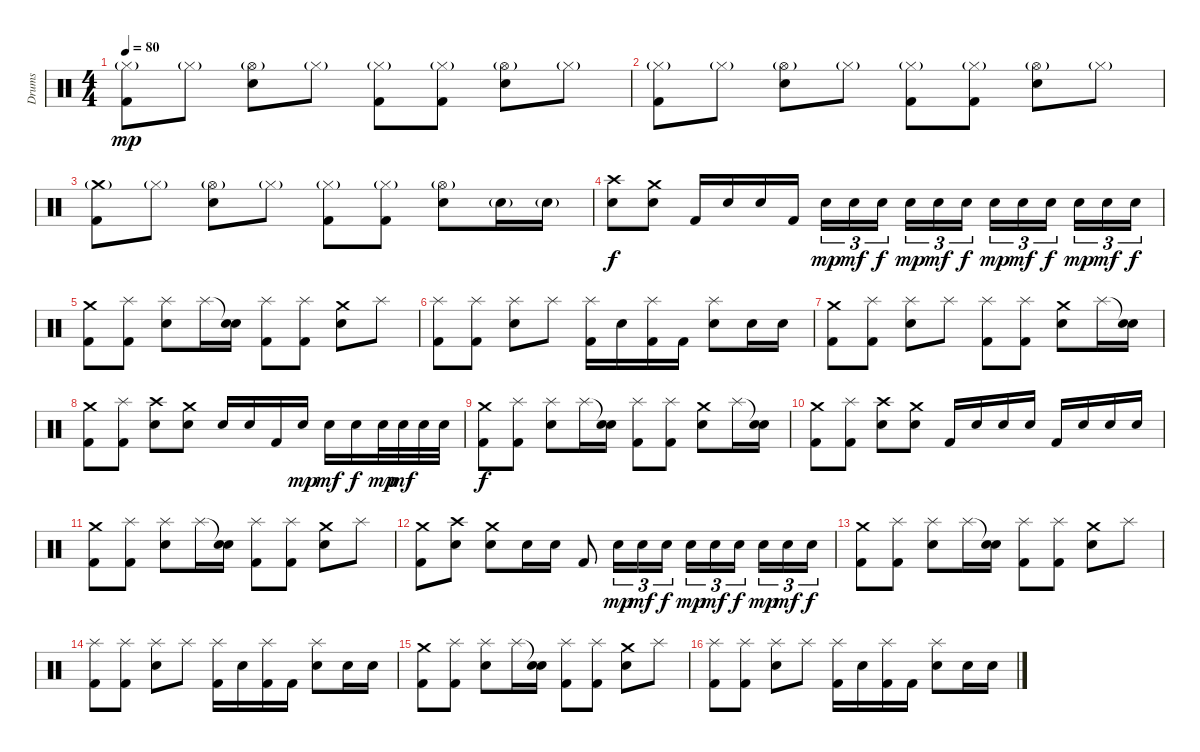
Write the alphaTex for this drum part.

\track ("Drums" "Drums") {instrument percussion}
\staff {score}
\articulation defaults
\ts (4 4)
\tempo 80
\clef neutral
\ks c
("Hi-Hat (closed)"{g} "Kick (hit) 2").8{dy mp} "Hi-Hat (closed)"{g}.8 ("Hi-Hat (open)"{g} "Snare (hit) 2").8 "Hi-Hat (closed)"{g}.8 ("Hi-Hat (closed)"{g} "Kick (hit) 2").8 ("Hi-Hat (closed)"{g} "Kick (hit) 2").8 ("Hi-Hat (open)"{g} "Snare (hit) 2").8 "Hi-Hat (closed)"{g}.8 |
("Hi-Hat (closed)"{g} "Kick (hit) 2").8 "Hi-Hat (closed)"{g}.8 ("Hi-Hat (open)"{g} "Snare (hit) 2").8 "Hi-Hat (closed)"{g}.8 ("Hi-Hat (closed)"{g} "Kick (hit) 2").8 ("Hi-Hat (closed)"{g} "Kick (hit) 2").8 ("Hi-Hat (open)"{g} "Snare (hit) 2").8 "Hi-Hat (closed)"{g}.8 |
("Crash medium (hit)"{g} "Kick (hit) 2").8 "Hi-Hat (closed)"{g}.8 ("Hi-Hat (open)"{g} "Snare (hit) 2").8 "Hi-Hat (closed)"{g}.8 ("Hi-Hat (closed)"{g} "Kick (hit) 2").8 ("Hi-Hat (closed)"{g} "Kick (hit) 2").8 ("Hi-Hat (open)"{g} "Snare (hit) 2").8 "Snare (hit) 2"{g}.16 "Snare (hit) 2"{g}.16 |
("Crash high (hit)" "Snare (hit) 2").8{dy f} ("Crash medium (hit)" "Snare (hit) 2").8 "Kick (hit) 2".16 "Snare (hit) 2".16 "Snare (hit) 2".16 "Kick (hit) 2".16 "Snare (hit) 2".16{tu (3 2) dy mp} "Snare (hit) 2".16{tu (3 2) dy mf} "Snare (hit) 2".16{tu (3 2) dy f} "Snare (hit) 2".16{tu (3 2) dy mp} "Snare (hit) 2".16{tu (3 2) dy mf} "Snare (hit) 2".16{tu (3 2) dy f} "Snare (hit) 2".16{tu (3 2) dy mp} "Snare (hit) 2".16{tu (3 2) dy mf} "Snare (hit) 2".16{tu (3 2) dy f} "Snare (hit) 2".16{tu (3 2) dy mp} "Snare (hit) 2".16{tu (3 2) dy mf} "Snare (hit) 2".16{tu (3 2) dy f} |
("Crash medium (hit)" "Kick (hit) 2").8 ("Splash (hit)" "Kick (hit) 2").8 ("Splash (hit)" "Snare (hit) 2").8 "Splash (hit)".16 ("Snare (hit)"{t} "Snare (hit) 2").16 ("Splash (hit)" "Kick (hit) 2").8 ("Splash (hit)" "Kick (hit) 2").8 ("Crash medium (hit)" "Snare (hit) 2").8 "Splash (hit)".8 |
("Splash (hit)" "Kick (hit) 2").8 ("Splash (hit)" "Kick (hit) 2").8 ("Splash (hit)" "Snare (hit) 2").8 "Splash (hit)".8 ("Splash (hit)" "Kick (hit) 2").16 "Snare (hit) 2".16 ("Splash (hit)" "Kick (hit) 2").16 "Kick (hit) 2".16 ("Splash (hit)" "Snare (hit) 2").8 "Snare (hit) 2".16 "Snare (hit) 2".16 |
("Crash medium (hit)" "Kick (hit) 2").8 ("Splash (hit)" "Kick (hit) 2").8 ("Splash (hit)" "Snare (hit) 2").8 "Splash (hit)".8 ("Splash (hit)" "Kick (hit) 2").8 ("Splash (hit)" "Kick (hit) 2").8 ("Crash medium (hit)" "Snare (hit) 2").8 "Splash (hit)".16 ("Snare (hit)"{t} "Snare (hit) 2").16 |
("Crash medium (hit)" "Kick (hit) 2").8 ("Splash (hit)" "Kick (hit) 2").8 ("Crash high (hit)" "Snare (hit) 2").8 ("Crash medium (hit)" "Snare (hit) 2").8 "Snare (hit) 2".16 "Snare (hit) 2".16 "Kick (hit) 2".16 "Snare (hit) 2".16{dy mp} "Snare (hit) 2".16{dy mf} "Snare (hit) 2".16{dy f} "Snare (hit) 2".32{dy mp} "Snare (hit) 2".32{dy mf} "Snare (hit) 2".32 "Snare (hit) 2".32 |
("Crash medium (hit)" "Kick (hit) 2").8{dy f} ("Splash (hit)" "Kick (hit) 2").8 ("Splash (hit)" "Snare (hit) 2").8 "Splash (hit)".16 ("Snare (hit)"{t} "Snare (hit) 2").16 ("Splash (hit)" "Kick (hit) 2").8 ("Splash (hit)" "Kick (hit) 2").8 ("Crash medium (hit)" "Snare (hit) 2").8 "Splash (hit)".16 ("Snare (hit)"{t} "Snare (hit) 2").16 |
("Crash medium (hit)" "Kick (hit) 2").8 ("Splash (hit)" "Kick (hit) 2").8 ("Crash high (hit)" "Snare (hit) 2").8 ("Crash medium (hit)" "Snare (hit) 2").8 "Kick (hit) 2".16 "Snare (hit) 2".16 "Snare (hit) 2".16 "Snare (hit) 2".16 "Kick (hit) 2".16 "Snare (hit) 2".16 "Snare (hit) 2".16 "Snare (hit) 2".16 |
("Crash medium (hit)" "Kick (hit) 2").8 ("Splash (hit)" "Kick (hit) 2").8 ("Splash (hit)" "Snare (hit) 2").8 "Splash (hit)".16 ("Snare (hit)"{t} "Snare (hit) 2").16 ("Splash (hit)" "Kick (hit) 2").8 ("Splash (hit)" "Kick (hit) 2").8 ("Crash medium (hit)" "Snare (hit) 2").8 "Splash (hit)".8 |
("Crash medium (hit)" "Kick (hit) 2").8 ("Crash high (hit)" "Snare (hit) 2").8 ("Crash medium (hit)" "Snare (hit) 2").8 "Snare (hit) 2".16 "Snare (hit) 2".16 "Kick (hit) 2".8 "Snare (hit) 2".16{tu (3 2) dy mp} "Snare (hit) 2".16{tu (3 2) dy mf} "Snare (hit) 2".16{tu (3 2) dy f} "Snare (hit) 2".16{tu (3 2) dy mp} "Snare (hit) 2".16{tu (3 2) dy mf} "Snare (hit) 2".16{tu (3 2) dy f} "Snare (hit) 2".16{tu (3 2) dy mp} "Snare (hit) 2".16{tu (3 2) dy mf} "Snare (hit) 2".16{tu (3 2) dy f} |
("Crash medium (hit)" "Kick (hit) 2").8 ("Splash (hit)" "Kick (hit) 2").8 ("Splash (hit)" "Snare (hit) 2").8 "Splash (hit)".16 ("Snare (hit)"{t} "Snare (hit) 2").16 ("Splash (hit)" "Kick (hit) 2").8 ("Splash (hit)" "Kick (hit) 2").8 ("Crash medium (hit)" "Snare (hit) 2").8 "Splash (hit)".8 |
("Splash (hit)" "Kick (hit) 2").8 ("Splash (hit)" "Kick (hit) 2").8 ("Splash (hit)" "Snare (hit) 2").8 "Splash (hit)".8 ("Splash (hit)" "Kick (hit) 2").16 "Snare (hit) 2".16 ("Splash (hit)" "Kick (hit) 2").16 "Kick (hit) 2".16 ("Splash (hit)" "Snare (hit) 2").8 "Snare (hit) 2".16 "Snare (hit) 2".16 |
("Crash medium (hit)" "Kick (hit) 2").8 ("Splash (hit)" "Kick (hit) 2").8 ("Splash (hit)" "Snare (hit) 2").8 "Splash (hit)".16 ("Snare (hit)"{t} "Snare (hit) 2").16 ("Splash (hit)" "Kick (hit) 2").8 ("Splash (hit)" "Kick (hit) 2").8 ("Crash medium (hit)" "Snare (hit) 2").8 "Splash (hit)".8 |
("Splash (hit)" "Kick (hit) 2").8 ("Splash (hit)" "Kick (hit) 2").8 ("Splash (hit)" "Snare (hit) 2").8 "Splash (hit)".8 ("Splash (hit)" "Kick (hit) 2").16 "Snare (hit) 2".16 ("Splash (hit)" "Kick (hit) 2").16 "Kick (hit) 2".16 ("Splash (hit)" "Snare (hit) 2").8 "Snare (hit) 2".16 "Snare (hit) 2".16
